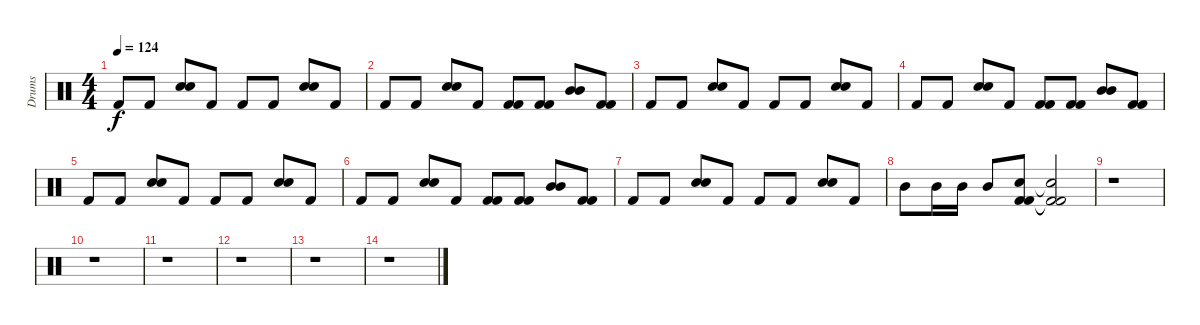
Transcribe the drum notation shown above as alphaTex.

\track ("Drums" "Drums") {instrument percussion}
\staff {score}
\articulation defaults
\ts (4 4)
\tempo 124
\clef neutral
\ks c "Kick (hit) 2".8{dy f} "Kick (hit) 2".8
("Snare (hit) 2" "Snare (hit) 2").8 "Kick (hit) 2".8 "Kick (hit) 2".8 "Kick (hit) 2".8 ("Snare (hit) 2" "Snare (hit) 2").8 "Kick (hit) 2".8 |
"Kick (hit) 2".8 "Kick (hit) 2".8 ("Snare (hit) 2" "Snare (hit) 2").8 "Kick (hit) 2".8 ("Kick (hit) 2" "Kick (hit) 2").8 ("Kick (hit) 2" "Kick (hit) 2").8 ("Mid Tom (hit)" "Mid Tom (hit)").8 ("Kick (hit) 2" "Kick (hit) 2").8 |
"Kick (hit) 2".8 "Kick (hit) 2".8 ("Snare (hit) 2" "Snare (hit) 2").8 "Kick (hit) 2".8 "Kick (hit) 2".8 "Kick (hit) 2".8 ("Snare (hit) 2" "Snare (hit) 2").8 "Kick (hit) 2".8 |
"Kick (hit) 2".8 "Kick (hit) 2".8 ("Snare (hit) 2" "Snare (hit) 2").8 "Kick (hit) 2".8 ("Kick (hit) 2" "Kick (hit) 2").8 ("Kick (hit) 2" "Kick (hit) 2").8 ("Mid Tom (hit)" "Mid Tom (hit)").8 ("Kick (hit) 2" "Kick (hit) 2").8 |
"Kick (hit) 2".8 "Kick (hit) 2".8 ("Snare (hit) 2" "Snare (hit) 2").8 "Kick (hit) 2".8 "Kick (hit) 2".8 "Kick (hit) 2".8 ("Snare (hit) 2" "Snare (hit) 2").8 "Kick (hit) 2".8 |
"Kick (hit) 2".8 "Kick (hit) 2".8 ("Snare (hit) 2" "Snare (hit) 2").8 "Kick (hit) 2".8 ("Kick (hit) 2" "Kick (hit) 2").8 ("Kick (hit) 2" "Kick (hit) 2").8 ("Mid Tom (hit)" "Mid Tom (hit)").8 ("Kick (hit) 2" "Kick (hit) 2").8 |
"Kick (hit) 2".8 "Kick (hit) 2".8 ("Snare (hit) 2" "Snare (hit) 2").8 "Kick (hit) 2".8 "Kick (hit) 2".8 "Kick (hit) 2".8 ("Snare (hit) 2" "Snare (hit) 2").8 "Kick (hit) 2".8 |
"Mid Tom (hit)".8 "Mid Tom (hit)".16 "Mid Tom (hit)".16 "Mid Tom (hit)".8 ("Snare (hit) 2" "Kick (hit) 2" "Kick (hit) 2").8 ("Snare (hit) 2"{t} "Kick (hit) 2"{t} "Kick (hit) 2"{t}).2 |
r.1 |
r.1 |
r.1 |
r.1 |
r.1 |
r.1
